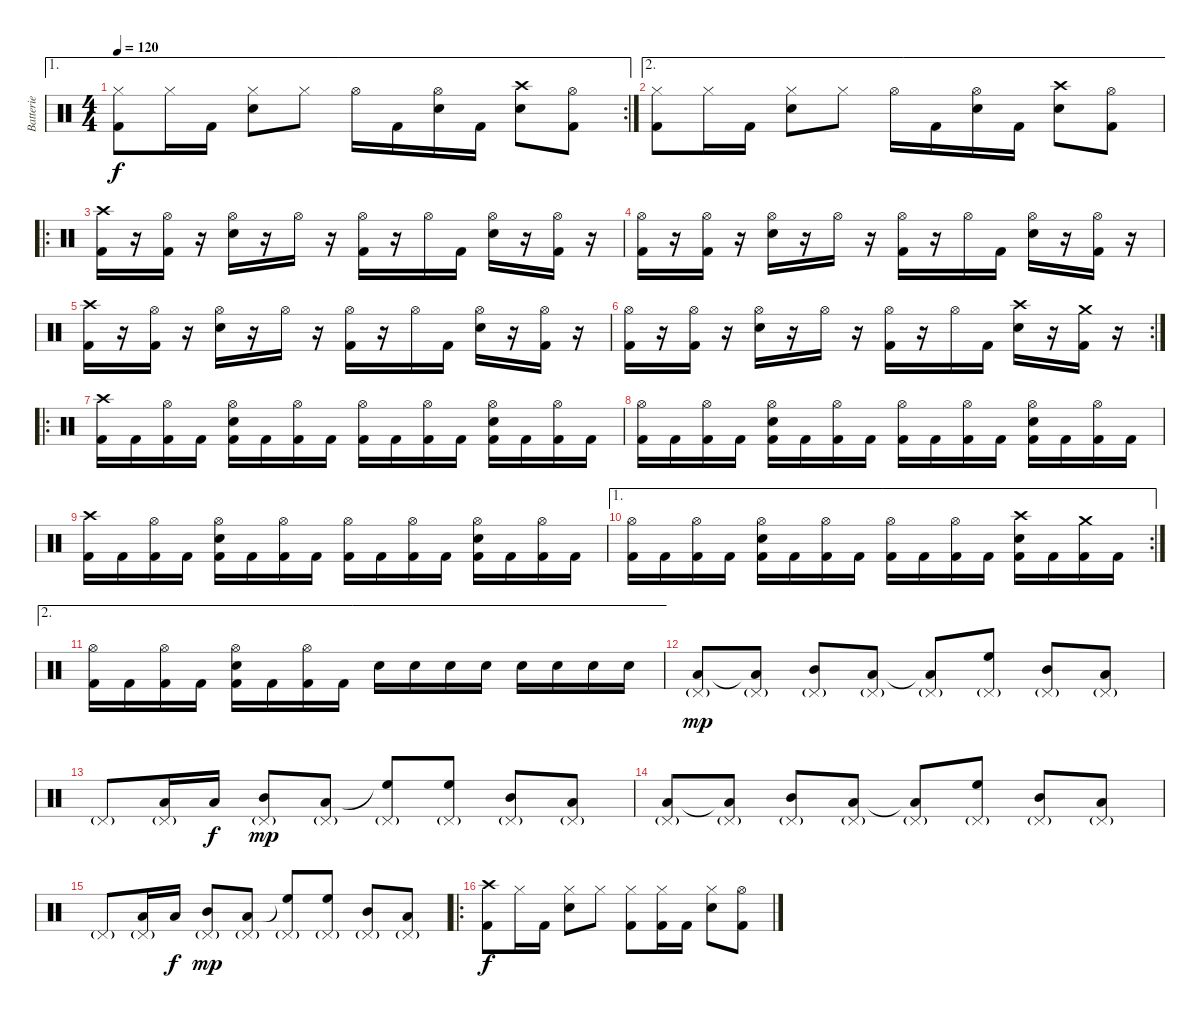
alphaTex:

\track ("Batterie" "Batterie") {instrument percussion}
\staff {score}
\articulation defaults
\ae 1
\rc 2
\ts (4 4)
\tempo 120
\clef neutral
\ks c
("Hi-Hat (closed)" "Kick (hit) 2").8{dy f} "Hi-Hat (closed)".16 "Kick (hit) 2".16 ("Hi-Hat (closed)" "Snare (hit) 2").8 "Hi-Hat (closed)".8 "Hi-Hat (open)".16 "Kick (hit) 2".16 ("Hi-Hat (open)" "Snare (hit) 2").16 "Kick (hit) 2".16 ("Crash high (hit)" "Snare (hit) 2").8 ("Hi-Hat (open)" "Kick (hit) 2").8 |
\ae 2
("Hi-Hat (closed)" "Kick (hit) 2").8 "Hi-Hat (closed)".16 "Kick (hit) 2".16 ("Hi-Hat (closed)" "Snare (hit) 2").8 "Hi-Hat (closed)".8 "Hi-Hat (open)".16 "Kick (hit) 2".16 ("Hi-Hat (open)" "Snare (hit) 2").16 "Kick (hit) 2".16 ("Crash high (hit)" "Snare (hit) 2").8 ("Hi-Hat (open)" "Kick (hit) 2").8 |
\ro
("Crash high (hit)" "Kick (hit) 2").16 r.16 ("Hi-Hat (open)" "Kick (hit) 2").16 r.16 ("Hi-Hat (open)" "Snare (hit) 2").16 r.16 "Hi-Hat (open)".16 r.16 ("Hi-Hat (open)" "Kick (hit) 2").16 r.16 "Hi-Hat (open)".16 "Kick (hit) 2".16 ("Hi-Hat (open)" "Snare (hit) 2").16 r.16 ("Hi-Hat (open)" "Kick (hit) 2").16 r.16 |
("Hi-Hat (open)" "Kick (hit) 2").16 r.16 ("Hi-Hat (open)" "Kick (hit) 2").16 r.16 ("Hi-Hat (open)" "Snare (hit) 2").16 r.16 "Hi-Hat (open)".16 r.16 ("Hi-Hat (open)" "Kick (hit) 2").16 r.16 "Hi-Hat (open)".16 "Kick (hit) 2".16 ("Hi-Hat (open)" "Snare (hit) 2").16 r.16 ("Hi-Hat (open)" "Kick (hit) 2").16 r.16 |
("Crash high (hit)" "Kick (hit) 2").16 r.16 ("Hi-Hat (open)" "Kick (hit) 2").16 r.16 ("Hi-Hat (open)" "Snare (hit) 2").16 r.16 "Hi-Hat (open)".16 r.16 ("Hi-Hat (open)" "Kick (hit) 2").16 r.16 "Hi-Hat (open)".16 "Kick (hit) 2".16 ("Hi-Hat (open)" "Snare (hit) 2").16 r.16 ("Hi-Hat (open)" "Kick (hit) 2").16 r.16 |
\rc 2
("Hi-Hat (open)" "Kick (hit) 2").16 r.16 ("Hi-Hat (open)" "Kick (hit) 2").16 r.16 ("Hi-Hat (open)" "Snare (hit) 2").16 r.16 "Hi-Hat (open)".16 r.16 ("Hi-Hat (open)" "Kick (hit) 2").16 r.16 "Hi-Hat (open)".16 "Kick (hit) 2".16 ("Crash high (hit)" "Snare (hit) 2").16 r.16 ("Crash medium (hit)" "Kick (hit) 2").16 r.16 |
\ro
("Crash high (hit)" "Kick (hit) 2").16 "Kick (hit) 2".16 ("Hi-Hat (open)" "Kick (hit) 2").16 "Kick (hit) 2".16 ("Hi-Hat (open)" "Snare (hit) 2" "Kick (hit) 2").16 "Kick (hit) 2".16 ("Hi-Hat (open)" "Kick (hit) 2").16 "Kick (hit) 2".16 ("Hi-Hat (open)" "Kick (hit) 2").16 "Kick (hit) 2".16 ("Hi-Hat (open)" "Kick (hit) 2").16 "Kick (hit) 2".16 ("Hi-Hat (open)" "Snare (hit) 2" "Kick (hit) 2").16 "Kick (hit) 2".16 ("Hi-Hat (open)" "Kick (hit) 2").16 "Kick (hit) 2".16 |
("Hi-Hat (open)" "Kick (hit) 2").16 "Kick (hit) 2".16 ("Hi-Hat (open)" "Kick (hit) 2").16 "Kick (hit) 2".16 ("Hi-Hat (open)" "Snare (hit) 2" "Kick (hit) 2").16 "Kick (hit) 2".16 ("Hi-Hat (open)" "Kick (hit) 2").16 "Kick (hit) 2".16 ("Hi-Hat (open)" "Kick (hit) 2").16 "Kick (hit) 2".16 ("Hi-Hat (open)" "Kick (hit) 2").16 "Kick (hit) 2".16 ("Hi-Hat (open)" "Snare (hit) 2" "Kick (hit) 2").16 "Kick (hit) 2".16 ("Hi-Hat (open)" "Kick (hit) 2").16 "Kick (hit) 2".16 |
("Crash high (hit)" "Kick (hit) 2").16 "Kick (hit) 2".16 ("Hi-Hat (open)" "Kick (hit) 2").16 "Kick (hit) 2".16 ("Hi-Hat (open)" "Snare (hit) 2" "Kick (hit) 2").16 "Kick (hit) 2".16 ("Hi-Hat (open)" "Kick (hit) 2").16 "Kick (hit) 2".16 ("Hi-Hat (open)" "Kick (hit) 2").16 "Kick (hit) 2".16 ("Hi-Hat (open)" "Kick (hit) 2").16 "Kick (hit) 2".16 ("Hi-Hat (open)" "Snare (hit) 2" "Kick (hit) 2").16 "Kick (hit) 2".16 ("Hi-Hat (open)" "Kick (hit) 2").16 "Kick (hit) 2".16 |
\ae 1
\rc 2
("Hi-Hat (open)" "Kick (hit) 2").16 "Kick (hit) 2".16 ("Hi-Hat (open)" "Kick (hit) 2").16 "Kick (hit) 2".16 ("Hi-Hat (open)" "Snare (hit) 2" "Kick (hit) 2").16 "Kick (hit) 2".16 ("Hi-Hat (open)" "Kick (hit) 2").16 "Kick (hit) 2".16 ("Hi-Hat (open)" "Kick (hit) 2").16 "Kick (hit) 2".16 ("Hi-Hat (open)" "Kick (hit) 2").16 "Kick (hit) 2".16 ("Crash high (hit)" "Snare (hit) 2" "Kick (hit) 2").16 "Kick (hit) 2".16 ("Crash medium (hit)" "Kick (hit) 2").16 "Kick (hit) 2".16 |
\ae 2
("Hi-Hat (open)" "Kick (hit) 2").16 "Kick (hit) 2".16 ("Hi-Hat (open)" "Kick (hit) 2").16 "Kick (hit) 2".16 ("Hi-Hat (open)" "Snare (hit) 2" "Kick (hit) 2").16 "Kick (hit) 2".16 ("Hi-Hat (open)" "Kick (hit) 2").16 "Kick (hit) 2".16 "Snare (hit) 2".16 "Snare (hit) 2".16 "Snare (hit) 2".16 "Snare (hit) 2".16 "Snare (hit) 2".16 "Snare (hit) 2".16 "Snare (hit) 2".16 "Snare (hit) 2".16 |
("Pedal Hi-Hat (hit)"{g} "Low Tom (hit)").8{dy mp} ("Pedal Hi-Hat (hit)"{g} "Low Tom (hit)"{t}).8 ("Pedal Hi-Hat (hit)"{g} "Mid Tom (hit)").8 ("Pedal Hi-Hat (hit)"{g} "Low Tom (hit)").8 ("Pedal Hi-Hat (hit)"{g} "Low Tom (hit)"{t}).8 ("Pedal Hi-Hat (hit)"{g} "High Floor Tom (hit)").8 ("Pedal Hi-Hat (hit)"{g} "Mid Tom (hit)").8 ("Pedal Hi-Hat (hit)"{g} "Low Tom (hit)").8 |
"Pedal Hi-Hat (hit)"{g}.8 ("Pedal Hi-Hat (hit)"{g} "Low Tom (hit)").16 "Low Tom (hit)".16{dy f} ("Pedal Hi-Hat (hit)"{g} "Mid Tom (hit)").8{dy mp} ("Pedal Hi-Hat (hit)"{g} "Low Tom (hit)").8 ("Pedal Hi-Hat (hit)"{g} "High Floor Tom (hit)"{t}).8 ("Pedal Hi-Hat (hit)"{g} "High Floor Tom (hit)").8 ("Pedal Hi-Hat (hit)"{g} "Mid Tom (hit)").8 ("Pedal Hi-Hat (hit)"{g} "Low Tom (hit)").8 |
("Pedal Hi-Hat (hit)"{g} "Low Tom (hit)").8 ("Pedal Hi-Hat (hit)"{g} "Low Tom (hit)"{t}).8 ("Pedal Hi-Hat (hit)"{g} "Mid Tom (hit)").8 ("Pedal Hi-Hat (hit)"{g} "Low Tom (hit)").8 ("Pedal Hi-Hat (hit)"{g} "Low Tom (hit)"{t}).8 ("Pedal Hi-Hat (hit)"{g} "High Floor Tom (hit)").8 ("Pedal Hi-Hat (hit)"{g} "Mid Tom (hit)").8 ("Pedal Hi-Hat (hit)"{g} "Low Tom (hit)").8 |
"Pedal Hi-Hat (hit)"{g}.8 ("Pedal Hi-Hat (hit)"{g} "Low Tom (hit)").16 "Low Tom (hit)".16{dy f} ("Pedal Hi-Hat (hit)"{g} "Mid Tom (hit)").8{dy mp} ("Pedal Hi-Hat (hit)"{g} "Low Tom (hit)").8 ("Pedal Hi-Hat (hit)"{g} "High Floor Tom (hit)"{t}).8 ("Pedal Hi-Hat (hit)"{g} "High Floor Tom (hit)").8 ("Pedal Hi-Hat (hit)"{g} "Mid Tom (hit)").8 ("Pedal Hi-Hat (hit)"{g} "Low Tom (hit)").8 |
\ro
("Crash high (hit)" "Kick (hit) 2").8{dy f} "Hi-Hat (closed)".16 "Kick (hit) 2".16 ("Hi-Hat (closed)" "Snare (hit) 2").8 "Hi-Hat (closed)".8 ("Hi-Hat (closed)" "Kick (hit) 2").8 ("Hi-Hat (closed)" "Kick (hit) 2").16 "Kick (hit) 2".16 ("Hi-Hat (closed)" "Snare (hit) 2").8 ("Hi-Hat (open)" "Kick (hit) 2").8
